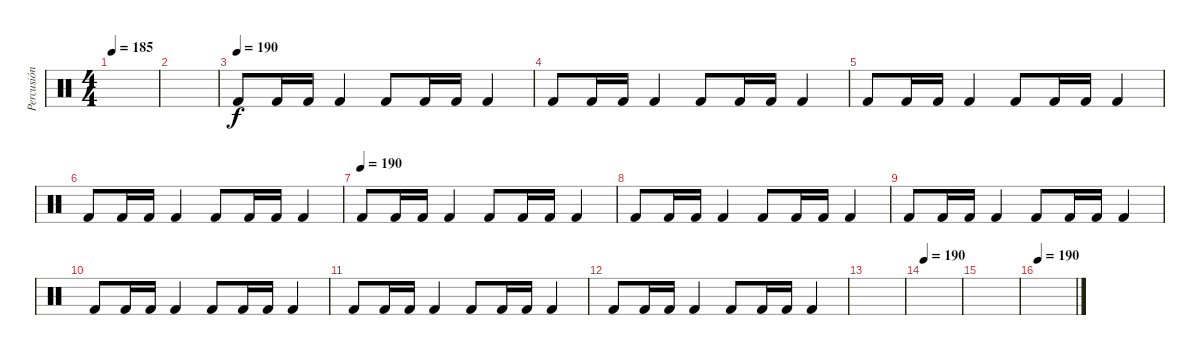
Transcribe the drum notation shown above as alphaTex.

\track ("Percusión" "Percusión") {instrument percussion}
\staff {score}
\articulation defaults
\ts (4 4)
\tempo 185
\clef neutral
\ks c
|
|
\tempo (190)
"Kick (hit) 2".8 "Kick (hit) 2".16 "Kick (hit) 2".16 "Kick (hit) 2".4 "Kick (hit) 2".8 "Kick (hit) 2".16 "Kick (hit) 2".16 "Kick (hit) 2".4 |
"Kick (hit) 2".8 "Kick (hit) 2".16 "Kick (hit) 2".16 "Kick (hit) 2".4 "Kick (hit) 2".8 "Kick (hit) 2".16 "Kick (hit) 2".16 "Kick (hit) 2".4 |
"Kick (hit) 2".8 "Kick (hit) 2".16 "Kick (hit) 2".16 "Kick (hit) 2".4 "Kick (hit) 2".8 "Kick (hit) 2".16 "Kick (hit) 2".16 "Kick (hit) 2".4 |
"Kick (hit) 2".8 "Kick (hit) 2".16 "Kick (hit) 2".16 "Kick (hit) 2".4 "Kick (hit) 2".8 "Kick (hit) 2".16 "Kick (hit) 2".16 "Kick (hit) 2".4 |
\tempo (190)
"Kick (hit) 2".8 "Kick (hit) 2".16 "Kick (hit) 2".16 "Kick (hit) 2".4 "Kick (hit) 2".8 "Kick (hit) 2".16 "Kick (hit) 2".16 "Kick (hit) 2".4 |
"Kick (hit) 2".8 "Kick (hit) 2".16 "Kick (hit) 2".16 "Kick (hit) 2".4 "Kick (hit) 2".8 "Kick (hit) 2".16 "Kick (hit) 2".16 "Kick (hit) 2".4 |
"Kick (hit) 2".8 "Kick (hit) 2".16 "Kick (hit) 2".16 "Kick (hit) 2".4 "Kick (hit) 2".8 "Kick (hit) 2".16 "Kick (hit) 2".16 "Kick (hit) 2".4 |
"Kick (hit) 2".8 "Kick (hit) 2".16 "Kick (hit) 2".16 "Kick (hit) 2".4 "Kick (hit) 2".8 "Kick (hit) 2".16 "Kick (hit) 2".16 "Kick (hit) 2".4 |
"Kick (hit) 2".8 "Kick (hit) 2".16 "Kick (hit) 2".16 "Kick (hit) 2".4 "Kick (hit) 2".8 "Kick (hit) 2".16 "Kick (hit) 2".16 "Kick (hit) 2".4 |
"Kick (hit) 2".8 "Kick (hit) 2".16 "Kick (hit) 2".16 "Kick (hit) 2".4 "Kick (hit) 2".8 "Kick (hit) 2".16 "Kick (hit) 2".16 "Kick (hit) 2".4 |
|
\tempo 190
|
|
\tempo 190
